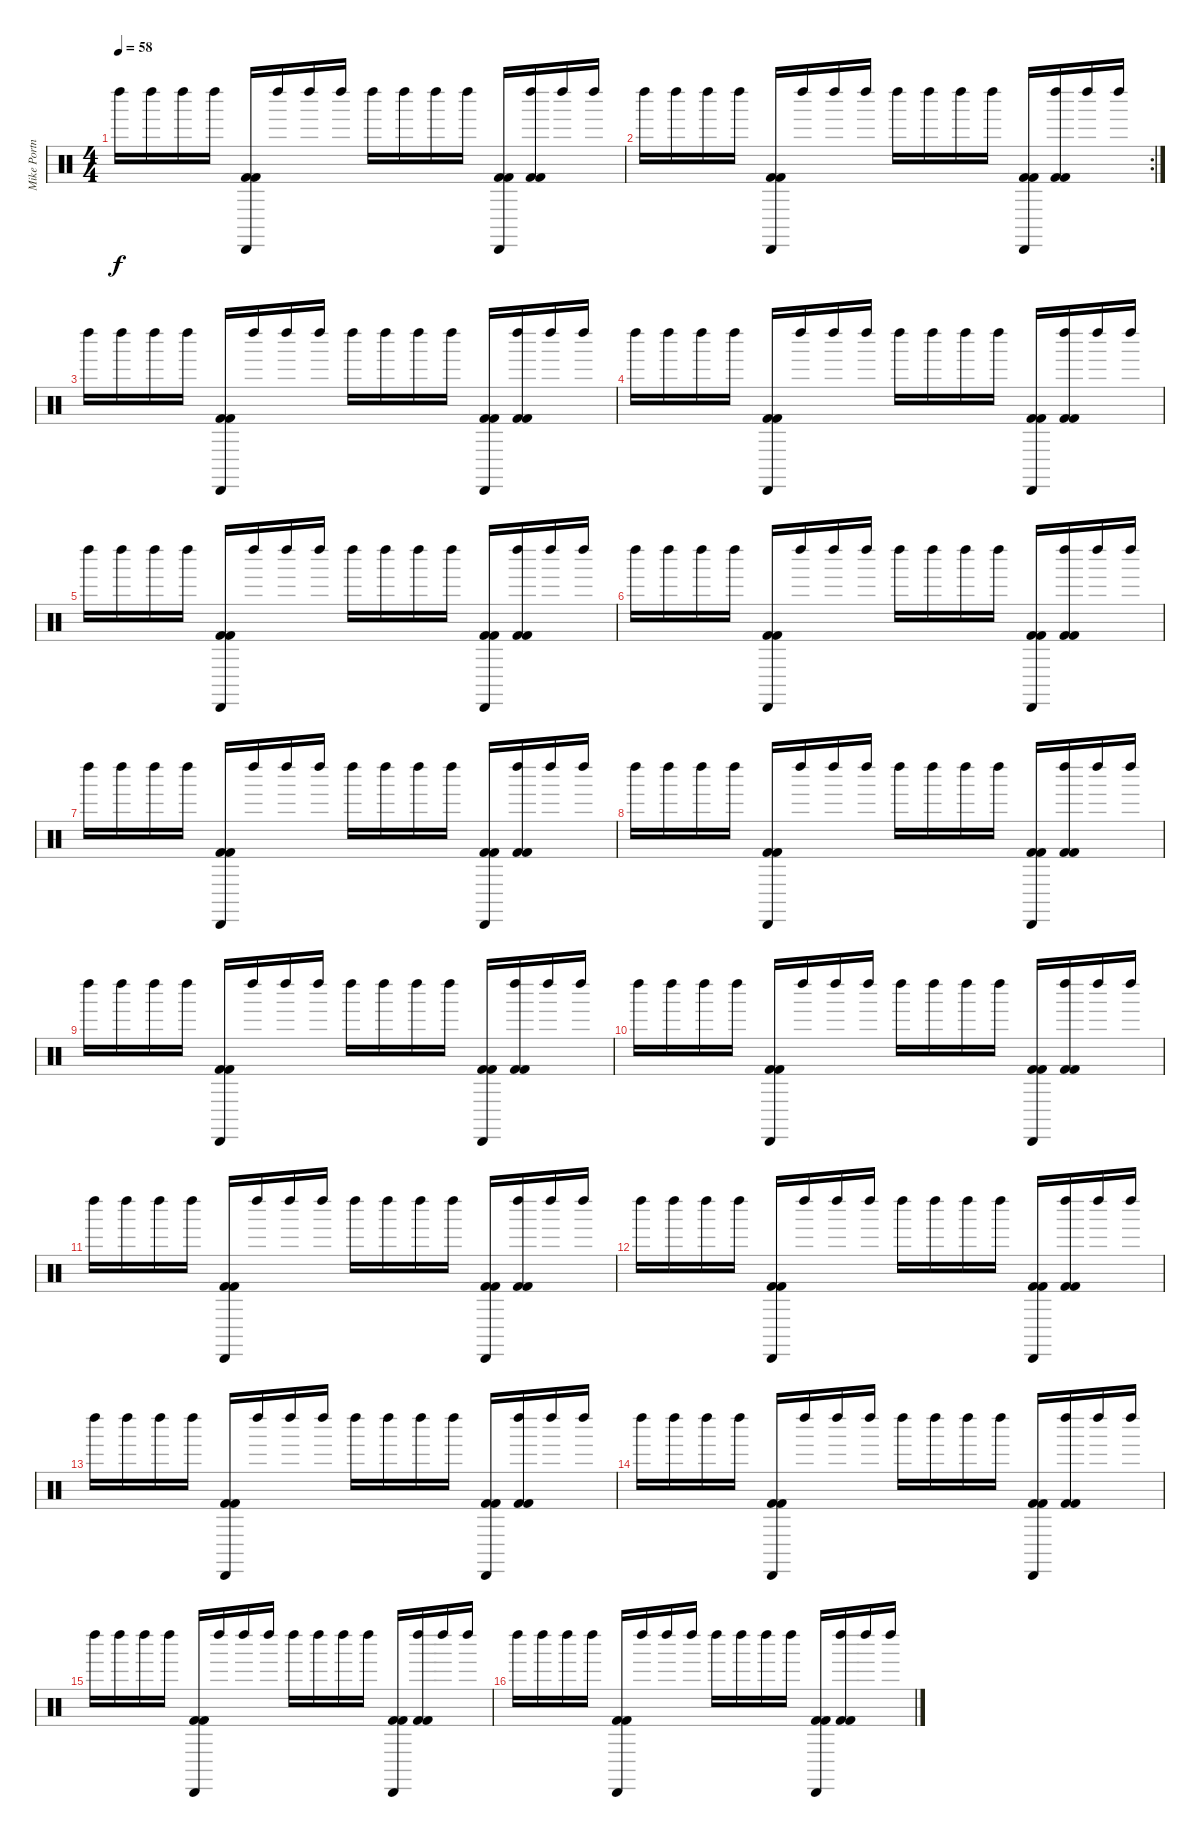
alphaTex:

\track ("Mike Portnoy - Drum" "Mike Portn") {instrument percussion}
\staff {score}
\articulation defaults
\ts (4 4)
\tempo 58
\clef neutral
\ks c "Left Maraca (hit)".16{dy f} "Left Maraca (hit)".16 "Left Maraca (hit)".16 "Left Maraca (hit)".16
("Cabasa (hit)" "Kick (hit) 2" "Kick (hit) 2").16 "Left Maraca (hit)".16 "Left Maraca (hit)".16 "Left Maraca (hit)".16 "Left Maraca (hit)".16 "Left Maraca (hit)".16 "Left Maraca (hit)".16 "Left Maraca (hit)".16 ("Cabasa (hit)" "Kick (hit) 2" "Kick (hit) 2").16 ("Left Maraca (hit)" "Kick (hit) 2" "Kick (hit) 2").16 "Left Maraca (hit)".16 "Left Maraca (hit)".16 |
\rc 2 "Left Maraca (hit)".16 "Left Maraca (hit)".16 "Left Maraca (hit)".16 "Left Maraca (hit)".16
("Cabasa (hit)" "Kick (hit) 2" "Kick (hit) 2").16 "Left Maraca (hit)".16 "Left Maraca (hit)".16 "Left Maraca (hit)".16 "Left Maraca (hit)".16 "Left Maraca (hit)".16 "Left Maraca (hit)".16 "Left Maraca (hit)".16 ("Cabasa (hit)" "Kick (hit) 2" "Kick (hit) 2").16 ("Left Maraca (hit)" "Kick (hit) 2" "Kick (hit) 2").16 "Left Maraca (hit)".16 "Left Maraca (hit)".16 |
"Left Maraca (hit)".16 "Left Maraca (hit)".16 "Left Maraca (hit)".16 "Left Maraca (hit)".16 ("Cabasa (hit)" "Kick (hit) 2" "Kick (hit) 2").16 "Left Maraca (hit)".16 "Left Maraca (hit)".16 "Left Maraca (hit)".16 "Left Maraca (hit)".16 "Left Maraca (hit)".16 "Left Maraca (hit)".16 "Left Maraca (hit)".16 ("Cabasa (hit)" "Kick (hit) 2" "Kick (hit) 2").16 ("Left Maraca (hit)" "Kick (hit) 2" "Kick (hit) 2").16 "Left Maraca (hit)".16 "Left Maraca (hit)".16 |
"Left Maraca (hit)".16 "Left Maraca (hit)".16 "Left Maraca (hit)".16 "Left Maraca (hit)".16 ("Cabasa (hit)" "Kick (hit) 2" "Kick (hit) 2").16 "Left Maraca (hit)".16 "Left Maraca (hit)".16 "Left Maraca (hit)".16 "Left Maraca (hit)".16 "Left Maraca (hit)".16 "Left Maraca (hit)".16 "Left Maraca (hit)".16 ("Cabasa (hit)" "Kick (hit) 2" "Kick (hit) 2").16 ("Left Maraca (hit)" "Kick (hit) 2" "Kick (hit) 2").16 "Left Maraca (hit)".16 "Left Maraca (hit)".16 |
"Left Maraca (hit)".16 "Left Maraca (hit)".16 "Left Maraca (hit)".16 "Left Maraca (hit)".16 ("Cabasa (hit)" "Kick (hit) 2" "Kick (hit) 2").16 "Left Maraca (hit)".16 "Left Maraca (hit)".16 "Left Maraca (hit)".16 "Left Maraca (hit)".16 "Left Maraca (hit)".16 "Left Maraca (hit)".16 "Left Maraca (hit)".16 ("Cabasa (hit)" "Kick (hit) 2" "Kick (hit) 2").16 ("Left Maraca (hit)" "Kick (hit) 2" "Kick (hit) 2").16 "Left Maraca (hit)".16 "Left Maraca (hit)".16 |
"Left Maraca (hit)".16 "Left Maraca (hit)".16 "Left Maraca (hit)".16 "Left Maraca (hit)".16 ("Cabasa (hit)" "Kick (hit) 2" "Kick (hit) 2").16 "Left Maraca (hit)".16 "Left Maraca (hit)".16 "Left Maraca (hit)".16 "Left Maraca (hit)".16 "Left Maraca (hit)".16 "Left Maraca (hit)".16 "Left Maraca (hit)".16 ("Cabasa (hit)" "Kick (hit) 2" "Kick (hit) 2").16 ("Left Maraca (hit)" "Kick (hit) 2" "Kick (hit) 2").16 "Left Maraca (hit)".16 "Left Maraca (hit)".16 |
"Left Maraca (hit)".16 "Left Maraca (hit)".16 "Left Maraca (hit)".16 "Left Maraca (hit)".16 ("Cabasa (hit)" "Kick (hit) 2" "Kick (hit) 2").16 "Left Maraca (hit)".16 "Left Maraca (hit)".16 "Left Maraca (hit)".16 "Left Maraca (hit)".16 "Left Maraca (hit)".16 "Left Maraca (hit)".16 "Left Maraca (hit)".16 ("Cabasa (hit)" "Kick (hit) 2" "Kick (hit) 2").16 ("Left Maraca (hit)" "Kick (hit) 2" "Kick (hit) 2").16 "Left Maraca (hit)".16 "Left Maraca (hit)".16 |
"Left Maraca (hit)".16 "Left Maraca (hit)".16 "Left Maraca (hit)".16 "Left Maraca (hit)".16 ("Cabasa (hit)" "Kick (hit) 2" "Kick (hit) 2").16 "Left Maraca (hit)".16 "Left Maraca (hit)".16 "Left Maraca (hit)".16 "Left Maraca (hit)".16 "Left Maraca (hit)".16 "Left Maraca (hit)".16 "Left Maraca (hit)".16 ("Cabasa (hit)" "Kick (hit) 2" "Kick (hit) 2").16 ("Left Maraca (hit)" "Kick (hit) 2" "Kick (hit) 2").16 "Left Maraca (hit)".16 "Left Maraca (hit)".16 |
"Left Maraca (hit)".16 "Left Maraca (hit)".16 "Left Maraca (hit)".16 "Left Maraca (hit)".16 ("Cabasa (hit)" "Kick (hit) 2" "Kick (hit) 2").16 "Left Maraca (hit)".16 "Left Maraca (hit)".16 "Left Maraca (hit)".16 "Left Maraca (hit)".16 "Left Maraca (hit)".16 "Left Maraca (hit)".16 "Left Maraca (hit)".16 ("Cabasa (hit)" "Kick (hit) 2" "Kick (hit) 2").16 ("Left Maraca (hit)" "Kick (hit) 2" "Kick (hit) 2").16 "Left Maraca (hit)".16 "Left Maraca (hit)".16 |
"Left Maraca (hit)".16 "Left Maraca (hit)".16 "Left Maraca (hit)".16 "Left Maraca (hit)".16 ("Cabasa (hit)" "Kick (hit) 2" "Kick (hit) 2").16 "Left Maraca (hit)".16 "Left Maraca (hit)".16 "Left Maraca (hit)".16 "Left Maraca (hit)".16 "Left Maraca (hit)".16 "Left Maraca (hit)".16 "Left Maraca (hit)".16 ("Cabasa (hit)" "Kick (hit) 2" "Kick (hit) 2").16 ("Left Maraca (hit)" "Kick (hit) 2" "Kick (hit) 2").16 "Left Maraca (hit)".16 "Left Maraca (hit)".16 |
"Left Maraca (hit)".16 "Left Maraca (hit)".16 "Left Maraca (hit)".16 "Left Maraca (hit)".16 ("Cabasa (hit)" "Kick (hit) 2" "Kick (hit) 2").16 "Left Maraca (hit)".16 "Left Maraca (hit)".16 "Left Maraca (hit)".16 "Left Maraca (hit)".16 "Left Maraca (hit)".16 "Left Maraca (hit)".16 "Left Maraca (hit)".16 ("Cabasa (hit)" "Kick (hit) 2" "Kick (hit) 2").16 ("Left Maraca (hit)" "Kick (hit) 2" "Kick (hit) 2").16 "Left Maraca (hit)".16 "Left Maraca (hit)".16 |
"Left Maraca (hit)".16 "Left Maraca (hit)".16 "Left Maraca (hit)".16 "Left Maraca (hit)".16 ("Cabasa (hit)" "Kick (hit) 2" "Kick (hit) 2").16 "Left Maraca (hit)".16 "Left Maraca (hit)".16 "Left Maraca (hit)".16 "Left Maraca (hit)".16 "Left Maraca (hit)".16 "Left Maraca (hit)".16 "Left Maraca (hit)".16 ("Cabasa (hit)" "Kick (hit) 2" "Kick (hit) 2").16 ("Left Maraca (hit)" "Kick (hit) 2" "Kick (hit) 2").16 "Left Maraca (hit)".16 "Left Maraca (hit)".16 |
"Left Maraca (hit)".16 "Left Maraca (hit)".16 "Left Maraca (hit)".16 "Left Maraca (hit)".16 ("Cabasa (hit)" "Kick (hit) 2" "Kick (hit) 2").16 "Left Maraca (hit)".16 "Left Maraca (hit)".16 "Left Maraca (hit)".16 "Left Maraca (hit)".16 "Left Maraca (hit)".16 "Left Maraca (hit)".16 "Left Maraca (hit)".16 ("Cabasa (hit)" "Kick (hit) 2" "Kick (hit) 2").16 ("Left Maraca (hit)" "Kick (hit) 2" "Kick (hit) 2").16 "Left Maraca (hit)".16 "Left Maraca (hit)".16 |
"Left Maraca (hit)".16 "Left Maraca (hit)".16 "Left Maraca (hit)".16 "Left Maraca (hit)".16 ("Cabasa (hit)" "Kick (hit) 2" "Kick (hit) 2").16 "Left Maraca (hit)".16 "Left Maraca (hit)".16 "Left Maraca (hit)".16 "Left Maraca (hit)".16 "Left Maraca (hit)".16 "Left Maraca (hit)".16 "Left Maraca (hit)".16 ("Cabasa (hit)" "Kick (hit) 2" "Kick (hit) 2").16 ("Left Maraca (hit)" "Kick (hit) 2" "Kick (hit) 2").16 "Left Maraca (hit)".16 "Left Maraca (hit)".16 |
"Left Maraca (hit)".16 "Left Maraca (hit)".16 "Left Maraca (hit)".16 "Left Maraca (hit)".16 ("Cabasa (hit)" "Kick (hit) 2" "Kick (hit) 2").16 "Left Maraca (hit)".16 "Left Maraca (hit)".16 "Left Maraca (hit)".16 "Left Maraca (hit)".16 "Left Maraca (hit)".16 "Left Maraca (hit)".16 "Left Maraca (hit)".16 ("Cabasa (hit)" "Kick (hit) 2" "Kick (hit) 2").16 ("Left Maraca (hit)" "Kick (hit) 2" "Kick (hit) 2").16 "Left Maraca (hit)".16 "Left Maraca (hit)".16 |
"Left Maraca (hit)".16 "Left Maraca (hit)".16 "Left Maraca (hit)".16 "Left Maraca (hit)".16 ("Cabasa (hit)" "Kick (hit) 2" "Kick (hit) 2").16 "Left Maraca (hit)".16 "Left Maraca (hit)".16 "Left Maraca (hit)".16 "Left Maraca (hit)".16 "Left Maraca (hit)".16 "Left Maraca (hit)".16 "Left Maraca (hit)".16 ("Cabasa (hit)" "Kick (hit) 2" "Kick (hit) 2").16 ("Left Maraca (hit)" "Kick (hit) 2" "Kick (hit) 2").16 "Left Maraca (hit)".16 "Left Maraca (hit)".16
